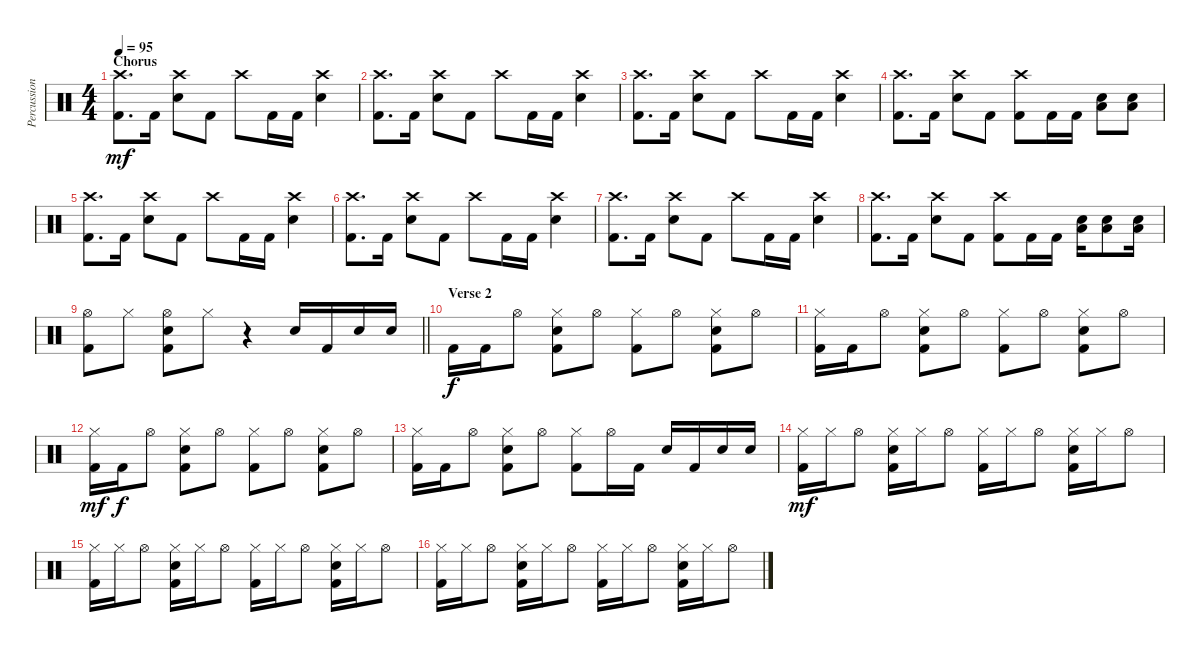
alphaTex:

\track ("Percussion" "Percussion") {instrument percussion}
\staff {score}
\articulation defaults
\ts (4 4)
\section ("" "Chorus")
\tempo 95
\clef neutral
\ks c
("Crash high (hit)" "Kick (hit) 2").8{d dy mf} "Kick (hit) 2".16 ("Crash high (hit)" "Snare (hit) 2").8 "Kick (hit) 2".8 "Crash high (hit)".8 "Kick (hit) 2".16 "Kick (hit) 2".16 ("Crash high (hit)" "Snare (hit) 2").4 |
("Crash high (hit)" "Kick (hit) 2").8{d} "Kick (hit) 2".16 ("Crash high (hit)" "Snare (hit) 2").8 "Kick (hit) 2".8 "Crash high (hit)".8 "Kick (hit) 2".16 "Kick (hit) 2".16 ("Crash high (hit)" "Snare (hit) 2").4 |
("Crash high (hit)" "Kick (hit) 2").8{d} "Kick (hit) 2".16 ("Crash high (hit)" "Snare (hit) 2").8 "Kick (hit) 2".8 "Crash high (hit)".8 "Kick (hit) 2".16 "Kick (hit) 2".16 ("Crash high (hit)" "Snare (hit) 2").4 |
("Crash high (hit)" "Kick (hit) 2").8{d} "Kick (hit) 2".16 ("Crash high (hit)" "Snare (hit) 2").8 "Kick (hit) 2".8 ("Crash high (hit)" "Kick (hit) 2").8 "Kick (hit) 2".16 "Kick (hit) 2".16 ("Low Floor Tom (hit)" "Snare (hit) 2").8 ("Low Floor Tom (hit)" "Snare (hit) 2").8 |
("Crash high (hit)" "Kick (hit) 2").8{d} "Kick (hit) 2".16 ("Crash high (hit)" "Snare (hit) 2").8 "Kick (hit) 2".8 "Crash high (hit)".8 "Kick (hit) 2".16 "Kick (hit) 2".16 ("Crash high (hit)" "Snare (hit) 2").4 |
("Crash high (hit)" "Kick (hit) 2").8{d} "Kick (hit) 2".16 ("Crash high (hit)" "Snare (hit) 2").8 "Kick (hit) 2".8 "Crash high (hit)".8 "Kick (hit) 2".16 "Kick (hit) 2".16 ("Crash high (hit)" "Snare (hit) 2").4 |
("Crash high (hit)" "Kick (hit) 2").8{d} "Kick (hit) 2".16 ("Crash high (hit)" "Snare (hit) 2").8 "Kick (hit) 2".8 "Crash high (hit)".8 "Kick (hit) 2".16 "Kick (hit) 2".16 ("Crash high (hit)" "Snare (hit) 2").4 |
("Crash high (hit)" "Kick (hit) 2").8{d} "Kick (hit) 2".16 ("Crash high (hit)" "Snare (hit) 2").8 "Kick (hit) 2".8 ("Crash high (hit)" "Kick (hit) 2").8 "Kick (hit) 2".16 "Kick (hit) 2".16 ("Low Floor Tom (hit)" "Snare (hit) 2").16 ("Low Floor Tom (hit)" "Snare (hit) 2").8 ("Low Floor Tom (hit)" "Snare (hit) 2").16 |
\barLineRight lightlight
("Hi-Hat (open)" "Kick (hit) 2").8 "Hi-Hat (closed)".8 ("Hi-Hat (open)" "Snare (hit) 2" "Kick (hit) 2").8 "Hi-Hat (closed)".8 r.4 "Snare (hit) 2".16 "Kick (hit) 2".16 "Snare (hit) 2".16 "Snare (hit) 2".16 |
\section ("" "Verse 2")
"Kick (hit) 2".16{dy f} "Kick (hit) 2".16 "Hi-Hat (open)".8 ("Hi-Hat (closed)" "Snare (hit) 2" "Kick (hit) 2").8 "Hi-Hat (open)".8 ("Hi-Hat (closed)" "Kick (hit) 2").8 "Hi-Hat (open)".8 ("Hi-Hat (closed)" "Snare (hit) 2" "Kick (hit) 2").8 "Hi-Hat (open)".8 |
("Hi-Hat (closed)" "Kick (hit) 2").16 "Kick (hit) 2".16 "Hi-Hat (open)".8 ("Hi-Hat (closed)" "Snare (hit) 2" "Kick (hit) 2").8 "Hi-Hat (open)".8 ("Hi-Hat (closed)" "Kick (hit) 2").8 "Hi-Hat (open)".8 ("Hi-Hat (closed)" "Snare (hit) 2" "Kick (hit) 2").8 "Hi-Hat (open)".8 |
("Hi-Hat (closed)" "Kick (hit) 2").16{dy mf} "Kick (hit) 2".16{dy f} "Hi-Hat (open)".8 ("Hi-Hat (closed)" "Snare (hit) 2" "Kick (hit) 2").8 "Hi-Hat (open)".8 ("Hi-Hat (closed)" "Kick (hit) 2").8 "Hi-Hat (open)".8 ("Hi-Hat (closed)" "Snare (hit) 2" "Kick (hit) 2").8 "Hi-Hat (open)".8 |
("Hi-Hat (closed)" "Kick (hit) 2").16 "Kick (hit) 2".16 "Hi-Hat (open)".8 ("Hi-Hat (closed)" "Snare (hit) 2" "Kick (hit) 2").8 "Hi-Hat (open)".8 ("Hi-Hat (closed)" "Kick (hit) 2").8 "Hi-Hat (open)".16 "Kick (hit) 2".16 "Snare (hit) 2".16 "Kick (hit) 2".16 "Snare (hit) 2".16 "Snare (hit) 2".16 |
("Hi-Hat (closed)" "Kick (hit) 2").16{dy mf} "Hi-Hat (closed)".16 "Hi-Hat (open)".8 ("Hi-Hat (closed)" "Snare (hit) 2" "Kick (hit) 2").16 "Hi-Hat (closed)".16 "Hi-Hat (open)".8 ("Hi-Hat (closed)" "Kick (hit) 2").16 "Hi-Hat (closed)".16 "Hi-Hat (open)".8 ("Hi-Hat (closed)" "Snare (hit) 2" "Kick (hit) 2").16 "Hi-Hat (closed)".16 "Hi-Hat (open)".8 |
("Hi-Hat (closed)" "Kick (hit) 2").16 "Hi-Hat (closed)".16 "Hi-Hat (open)".8 ("Hi-Hat (closed)" "Snare (hit) 2" "Kick (hit) 2").16 "Hi-Hat (closed)".16 "Hi-Hat (open)".8 ("Hi-Hat (closed)" "Kick (hit) 2").16 "Hi-Hat (closed)".16 "Hi-Hat (open)".8 ("Hi-Hat (closed)" "Snare (hit) 2" "Kick (hit) 2").16 "Hi-Hat (closed)".16 "Hi-Hat (open)".8 |
("Hi-Hat (closed)" "Kick (hit) 2").16 "Hi-Hat (closed)".16 "Hi-Hat (open)".8 ("Hi-Hat (closed)" "Snare (hit) 2" "Kick (hit) 2").16 "Hi-Hat (closed)".16 "Hi-Hat (open)".8 ("Hi-Hat (closed)" "Kick (hit) 2").16 "Hi-Hat (closed)".16 "Hi-Hat (open)".8 ("Hi-Hat (closed)" "Snare (hit) 2" "Kick (hit) 2").16 "Hi-Hat (closed)".16 "Hi-Hat (open)".8
